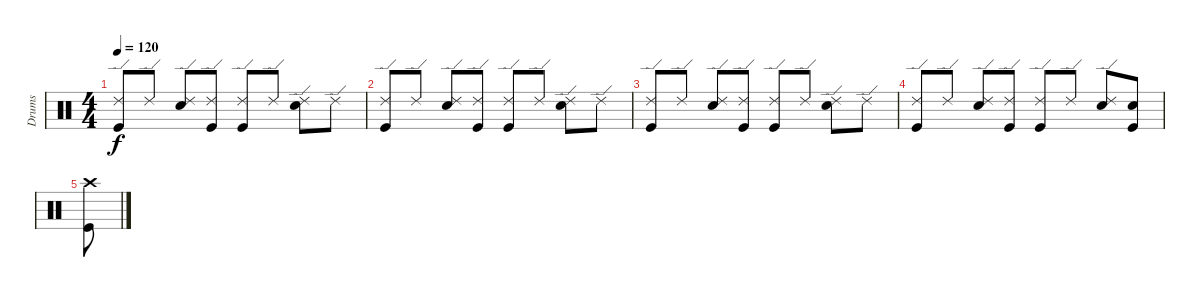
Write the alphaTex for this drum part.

\track ("Drums" "Drums") {instrument percussion}
\staff {score}
\articulation defaults
\ts (4 4)
\tempo 120
\clef neutral
\ks c
("Ride (edge) 2" "Kick (hit)").8{dy f} "Ride (edge) 2".8 ("Ride (edge) 2" "Electric Snare (hit)").8 ("Ride (edge) 2" "Kick (hit)").8 ("Ride (edge) 2" "Kick (hit)").8 "Ride (edge) 2".8 ("Ride (edge) 2" "Electric Snare (hit)").8 "Ride (edge) 2".8 |
("Ride (edge) 2" "Kick (hit)").8 "Ride (edge) 2".8 ("Ride (edge) 2" "Electric Snare (hit)").8 ("Ride (edge) 2" "Kick (hit)").8 ("Ride (edge) 2" "Kick (hit)").8 "Ride (edge) 2".8 ("Ride (edge) 2" "Electric Snare (hit)").8 "Ride (edge) 2".8 |
("Ride (edge) 2" "Kick (hit)").8 "Ride (edge) 2".8 ("Ride (edge) 2" "Electric Snare (hit)").8 ("Ride (edge) 2" "Kick (hit)").8 ("Ride (edge) 2" "Kick (hit)").8 "Ride (edge) 2".8 ("Ride (edge) 2" "Electric Snare (hit)").8 "Ride (edge) 2".8 |
("Ride (edge) 2" "Kick (hit)").8 "Ride (edge) 2".8 ("Ride (edge) 2" "Electric Snare (hit)").8 ("Ride (edge) 2" "Kick (hit)").8 ("Ride (edge) 2" "Kick (hit)").8 "Ride (edge) 2".8 ("Ride (edge) 2" "Electric Snare (hit)").8 ("Electric Snare (hit)" "Kick (hit)").8 |
("Crash high (hit)" "Kick (hit)").8
